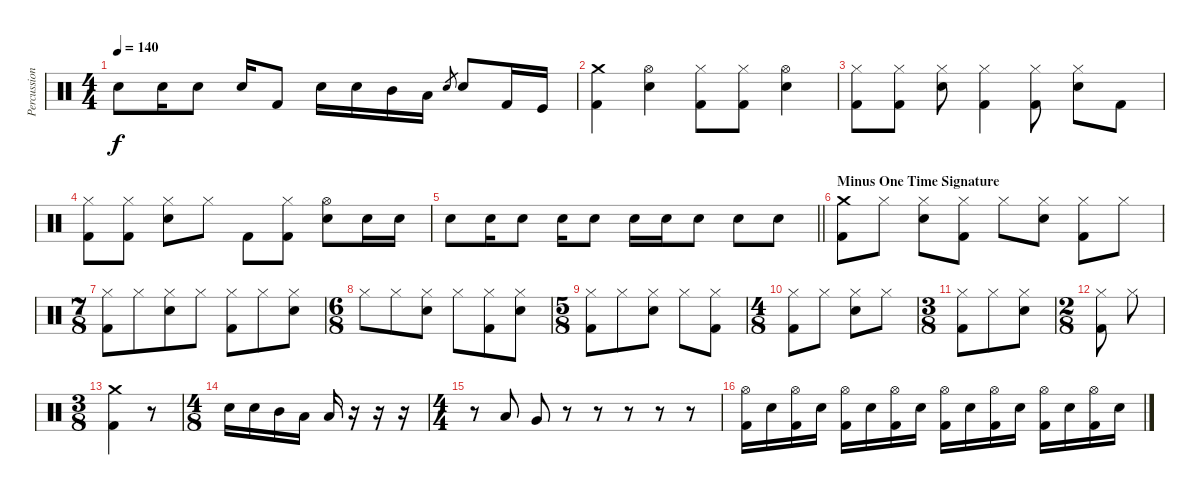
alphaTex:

\track ("Percussion" "Percussion") {instrument percussion}
\staff {score}
\articulation defaults
\ts (4 4)
\tempo 140
\clef neutral
\ks c "Snare (hit) 2".8{dy f} "Snare (hit) 2".16 "Snare (hit) 2".8 "Snare (hit) 2".16 "Kick (hit) 2".8 "Snare (hit) 2".16 "Snare (hit) 2".16 "Mid Tom (hit)".16 "Low Tom (hit)".16 "Snare (hit) 2".8{gr} "Snare (hit) 2".8 "Kick (hit) 2".16 "Kick (hit)".16
|
("Crash medium (hit)" "Kick (hit) 2").4 ("Hi-Hat (open)" "Snare (hit) 2").4 ("Hi-Hat (closed)" "Kick (hit) 2").8 ("Hi-Hat (closed)" "Kick (hit) 2").8 ("Hi-Hat (open)" "Snare (hit) 2").4 |
("Hi-Hat (closed)" "Kick (hit) 2").8 ("Hi-Hat (closed)" "Kick (hit) 2").8 ("Hi-Hat (closed)" "Snare (hit) 2").8 ("Hi-Hat (closed)" "Kick (hit) 2").4 ("Hi-Hat (closed)" "Kick (hit) 2").8 ("Hi-Hat (closed)" "Snare (hit) 2").8 "Kick (hit) 2".8 |
("Hi-Hat (closed)" "Kick (hit) 2").8 ("Hi-Hat (closed)" "Kick (hit) 2").8 ("Hi-Hat (closed)" "Snare (hit) 2").8 "Hi-Hat (closed)".8 "Kick (hit) 2".8 ("Hi-Hat (closed)" "Kick (hit) 2").8 ("Hi-Hat (open)" "Snare (hit) 2").8 "Snare (hit) 2".16 "Snare (hit) 2".16 |
\barLineRight lightlight "Snare (hit) 2".8 "Snare (hit) 2".16 "Snare (hit) 2".8 "Snare (hit) 2".16 "Snare (hit) 2".8 "Snare (hit) 2".16 "Snare (hit) 2".16 "Snare (hit) 2".8 "Snare (hit) 2".8 "Snare (hit) 2".8
|
\section ("" "Minus One Time Signature")
("Crash medium (hit)" "Kick (hit) 2").8 "Hi-Hat (closed)".8 ("Hi-Hat (closed)" "Snare (hit) 2").8 ("Hi-Hat (closed)" "Kick (hit) 2").8 "Hi-Hat (closed)".8 ("Hi-Hat (closed)" "Snare (hit) 2").8 ("Hi-Hat (closed)" "Kick (hit) 2").8 "Hi-Hat (closed)".8 |
\ts (7 8)
("Hi-Hat (closed)" "Kick (hit) 2").8 "Hi-Hat (closed)".8 ("Hi-Hat (closed)" "Snare (hit) 2").8 "Hi-Hat (closed)".8 ("Hi-Hat (closed)" "Kick (hit) 2").8 "Hi-Hat (closed)".8 ("Hi-Hat (closed)" "Snare (hit) 2").8 |
\ts (6 8)
"Hi-Hat (closed)".8 "Hi-Hat (closed)".8 ("Hi-Hat (closed)" "Snare (hit) 2").8 "Hi-Hat (closed)".8 ("Hi-Hat (closed)" "Kick (hit) 2").8 ("Hi-Hat (closed)" "Snare (hit) 2").8 |
\ts (5 8)
("Hi-Hat (closed)" "Kick (hit) 2").8 "Hi-Hat (closed)".8 ("Hi-Hat (closed)" "Snare (hit) 2").8 "Hi-Hat (closed)".8 ("Hi-Hat (closed)" "Kick (hit) 2").8 |
\ts (4 8)
("Hi-Hat (closed)" "Kick (hit) 2").8 "Hi-Hat (closed)".8 ("Hi-Hat (closed)" "Snare (hit) 2").8 "Hi-Hat (closed)".8 |
\ts (3 8)
("Hi-Hat (closed)" "Kick (hit) 2").8 "Hi-Hat (closed)".8 ("Hi-Hat (closed)" "Snare (hit) 2").8 |
\ts (2 8)
("Hi-Hat (closed)" "Kick (hit) 2").8 "Hi-Hat (closed)".8 |
\ts (3 8)
("Crash medium (hit)" "Kick (hit) 2").4 r.8 |
\ts (4 8)
"Snare (hit) 2".16 "Snare (hit) 2".16 "Mid Tom (hit)".16 "Low Tom (hit)".16 "Low Tom (hit)".16 r.16 r.16 r.16 |
\ts (4 4)
r.8 "Low Tom (hit)".8 "Very Low Tom (hit)".8 r.8 r.8 r.8 r.8 r.8 |
("Hi-Hat (open)" "Kick (hit) 2").16 "Snare (hit) 2".16 ("Hi-Hat (open)" "Kick (hit) 2").16 "Snare (hit) 2".16 ("Hi-Hat (open)" "Kick (hit) 2").16 "Snare (hit) 2".16 ("Hi-Hat (open)" "Kick (hit) 2").16 "Snare (hit) 2".16 ("Hi-Hat (open)" "Kick (hit) 2").16 "Snare (hit) 2".16 ("Hi-Hat (open)" "Kick (hit) 2").16 "Snare (hit) 2".16 ("Hi-Hat (open)" "Kick (hit) 2").16 "Snare (hit) 2".16 ("Hi-Hat (open)" "Kick (hit) 2").16 "Snare (hit) 2".16
